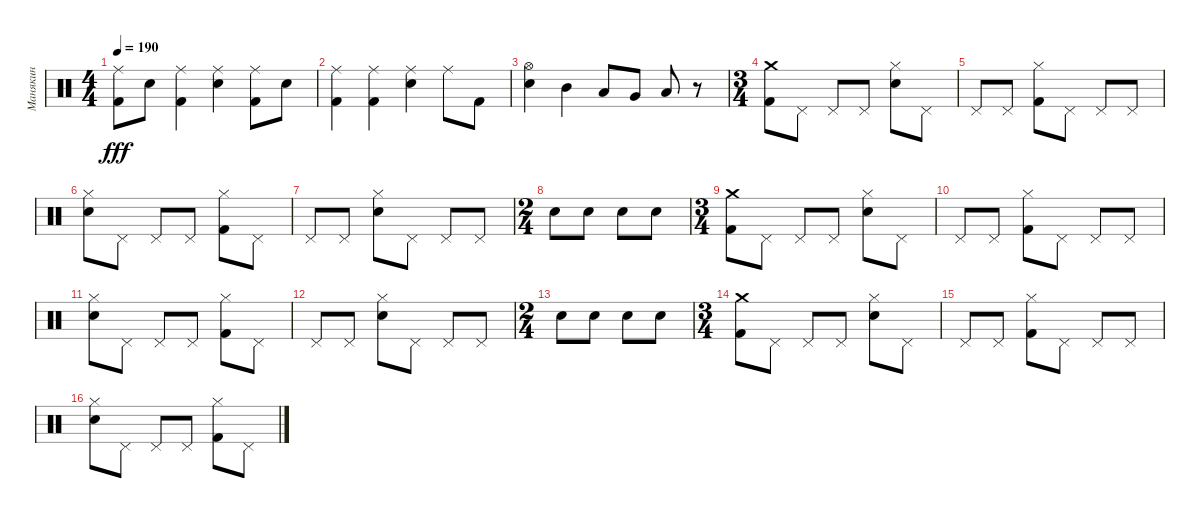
\track ("Манякин" "Манякин") {instrument percussion}
\staff {score}
\articulation defaults
\ts (4 4)
\tempo 190
\clef neutral
\ks c
("Kick (hit) 2" "Ride (middle)").8{dy fff} "Snare (hit) 2".8 ("Kick (hit) 2" "Ride (middle)").4 ("Snare (hit) 2" "Ride (middle)").4 ("Kick (hit) 2" "Ride (middle)").8 "Snare (hit) 2".8 |
("Kick (hit) 2" "Ride (middle)").4 ("Kick (hit) 2" "Ride (middle)").4 ("Snare (hit) 2" "Ride (middle)").4 "Ride (middle)".8 "Kick (hit) 2".8 |
("Hi-Hat (open)" "Snare (hit) 2").4 "Mid Tom (hit)".4 "Low Tom (hit)".8 "Very Low Tom (hit)".8 "Low Floor Tom (hit)".8 r.8 |
\ts (3 4)
("Kick (hit) 2" "Crash medium (hit)").8 "Pedal Hi-Hat (hit)".8 "Pedal Hi-Hat (hit)".8 "Pedal Hi-Hat (hit)".8 ("Snare (hit) 2" "Hi-Hat (closed)").8 "Pedal Hi-Hat (hit)".8 |
"Pedal Hi-Hat (hit)".8 "Pedal Hi-Hat (hit)".8 ("Hi-Hat (closed)" "Kick (hit) 2").8 "Pedal Hi-Hat (hit)".8 "Pedal Hi-Hat (hit)".8 "Pedal Hi-Hat (hit)".8 |
("Hi-Hat (closed)" "Snare (hit) 2").8 "Pedal Hi-Hat (hit)".8 "Pedal Hi-Hat (hit)".8 "Pedal Hi-Hat (hit)".8 ("Hi-Hat (closed)" "Kick (hit) 2").8 "Pedal Hi-Hat (hit)".8 |
"Pedal Hi-Hat (hit)".8 "Pedal Hi-Hat (hit)".8 ("Hi-Hat (closed)" "Snare (hit) 2").8 "Pedal Hi-Hat (hit)".8 "Pedal Hi-Hat (hit)".8 "Pedal Hi-Hat (hit)".8 |
\ts (2 4)
"Snare (hit) 2".8 "Snare (hit) 2".8 "Snare (hit) 2".8 "Snare (hit) 2".8 |
\ts (3 4)
("Crash medium (hit)" "Kick (hit) 2").8 "Pedal Hi-Hat (hit)".8 "Pedal Hi-Hat (hit)".8 "Pedal Hi-Hat (hit)".8 ("Snare (hit) 2" "Hi-Hat (closed)").8 "Pedal Hi-Hat (hit)".8 |
"Pedal Hi-Hat (hit)".8 "Pedal Hi-Hat (hit)".8 ("Hi-Hat (closed)" "Kick (hit) 2").8 "Pedal Hi-Hat (hit)".8 "Pedal Hi-Hat (hit)".8 "Pedal Hi-Hat (hit)".8 |
("Hi-Hat (closed)" "Snare (hit) 2").8 "Pedal Hi-Hat (hit)".8 "Pedal Hi-Hat (hit)".8 "Pedal Hi-Hat (hit)".8 ("Hi-Hat (closed)" "Kick (hit) 2").8 "Pedal Hi-Hat (hit)".8 |
"Pedal Hi-Hat (hit)".8 "Pedal Hi-Hat (hit)".8 ("Hi-Hat (closed)" "Snare (hit) 2").8 "Pedal Hi-Hat (hit)".8 "Pedal Hi-Hat (hit)".8 "Pedal Hi-Hat (hit)".8 |
\ts (2 4)
"Snare (hit) 2".8 "Snare (hit) 2".8 "Snare (hit) 2".8 "Snare (hit) 2".8 |
\ts (3 4)
("Crash medium (hit)" "Kick (hit) 2").8 "Pedal Hi-Hat (hit)".8 "Pedal Hi-Hat (hit)".8 "Pedal Hi-Hat (hit)".8 ("Snare (hit) 2" "Hi-Hat (closed)").8 "Pedal Hi-Hat (hit)".8 |
"Pedal Hi-Hat (hit)".8 "Pedal Hi-Hat (hit)".8 ("Hi-Hat (closed)" "Kick (hit) 2").8 "Pedal Hi-Hat (hit)".8 "Pedal Hi-Hat (hit)".8 "Pedal Hi-Hat (hit)".8 |
("Hi-Hat (closed)" "Snare (hit) 2").8 "Pedal Hi-Hat (hit)".8 "Pedal Hi-Hat (hit)".8 "Pedal Hi-Hat (hit)".8 ("Hi-Hat (closed)" "Kick (hit) 2").8 "Pedal Hi-Hat (hit)".8
